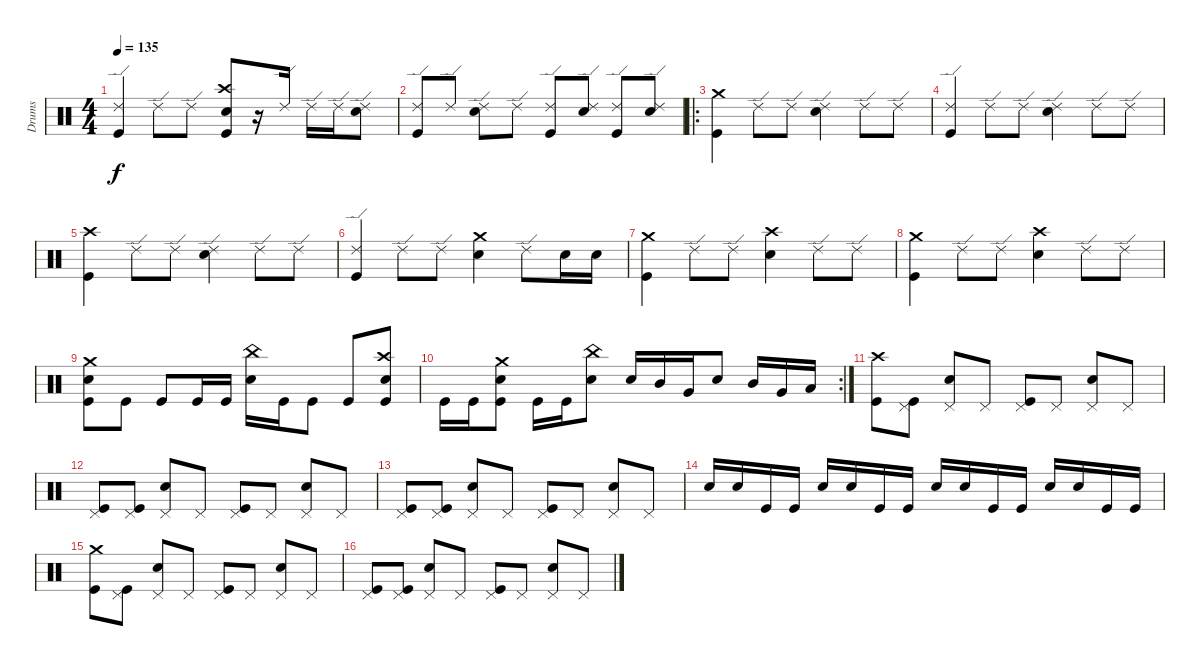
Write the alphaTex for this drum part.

\track ("Drums" "Drums") {instrument percussion}
\staff {score}
\articulation defaults
\ts (4 4)
\tempo 135
\clef neutral
\ks c
("Ride (edge) 2" "Kick (hit)").4{dy f} "Ride (edge) 2".8 "Ride (edge) 2".8 ("Crash high (hit)" "Snare (hit) 2" "Kick (hit)").8 r.16 "Ride (edge) 2".16 "Ride (edge) 2".16 "Ride (edge) 2".16 ("Ride (edge) 2" "Snare (hit) 2").8 |
("Ride (edge) 2" "Kick (hit)").8 "Ride (edge) 2".8 ("Ride (edge) 2" "Snare (hit) 2").8 "Ride (edge) 2".8 ("Ride (edge) 2" "Kick (hit)").8 ("Ride (edge) 2" "Snare (hit) 2").8 ("Ride (edge) 2" "Kick (hit)").8 ("Ride (edge) 2" "Snare (hit) 2").8 |
\ro
("Crash medium (hit)" "Kick (hit)").4 "Ride (edge) 2".8 "Ride (edge) 2".8 ("Ride (edge) 2" "Snare (hit) 2").4 "Ride (edge) 2".8 "Ride (edge) 2".8 |
("Ride (edge) 2" "Kick (hit)").4 "Ride (edge) 2".8 "Ride (edge) 2".8 ("Ride (edge) 2" "Snare (hit) 2").4 "Ride (edge) 2".8 "Ride (edge) 2".8 |
("Crash high (hit)" "Kick (hit)").4 "Ride (edge) 2".8 "Ride (edge) 2".8 ("Ride (edge) 2" "Snare (hit) 2").4 "Ride (edge) 2".8 "Ride (edge) 2".8 |
("Ride (edge) 2" "Kick (hit)").4 "Ride (edge) 2".8 "Ride (edge) 2".8 ("Crash medium (hit)" "Snare (hit) 2").4 "Ride (edge) 2".8 "Snare (hit) 2".16 "Snare (hit) 2".16 |
("Crash medium (hit)" "Kick (hit)").4 "Ride (edge) 2".8 "Ride (edge) 2".8 ("Crash high (hit)" "Snare (hit) 2").4 "Ride (edge) 2".8 "Ride (edge) 2".8 |
("Crash medium (hit)" "Kick (hit)").4 "Ride (edge) 2".8 "Ride (edge) 2".8 ("Crash high (hit)" "Snare (hit) 2").4 "Ride (edge) 2".8 "Ride (edge) 2".8 |
("Crash medium (hit)" "Snare (hit) 2" "Kick (hit)").8 "Kick (hit)".8 "Kick (hit)".8 "Kick (hit)".16 "Kick (hit)".16 ("China (hit)" "Snare (hit) 2").16 "Kick (hit)".16 "Kick (hit)".8 "Kick (hit)".8 ("Crash high (hit)" "Snare (hit) 2" "Kick (hit)").8 |
\rc 2 "Kick (hit)".16 "Kick (hit)".16
("Crash medium (hit)" "Snare (hit) 2" "Kick (hit)").8 "Kick (hit)".16 "Kick (hit)".16 ("China (hit)" "Snare (hit) 2").8 "Snare (hit) 2".16 "Mid Tom (hit)".16 "Very Low Tom (hit)".16 "Snare (hit) 2".8 "Mid Tom (hit)".16 "Very Low Tom (hit)".16 "Low Floor Tom (hit)".16 |
("Crash high (hit)" "Kick (hit)").8 ("Pedal Hi-Hat (hit)" "Kick (hit)").8 ("Pedal Hi-Hat (hit)" "Snare (hit) 2").8 "Pedal Hi-Hat (hit)".8 ("Pedal Hi-Hat (hit)" "Kick (hit)").8 "Pedal Hi-Hat (hit)".8 ("Pedal Hi-Hat (hit)" "Snare (hit) 2").8 "Pedal Hi-Hat (hit)".8 |
("Pedal Hi-Hat (hit)" "Kick (hit)").8 ("Pedal Hi-Hat (hit)" "Kick (hit)").8 ("Pedal Hi-Hat (hit)" "Snare (hit) 2").8 "Pedal Hi-Hat (hit)".8 ("Pedal Hi-Hat (hit)" "Kick (hit)").8 "Pedal Hi-Hat (hit)".8 ("Pedal Hi-Hat (hit)" "Snare (hit) 2").8 "Pedal Hi-Hat (hit)".8 |
("Pedal Hi-Hat (hit)" "Kick (hit)").8 ("Pedal Hi-Hat (hit)" "Kick (hit)").8 ("Pedal Hi-Hat (hit)" "Snare (hit) 2").8 "Pedal Hi-Hat (hit)".8 ("Pedal Hi-Hat (hit)" "Kick (hit)").8 "Pedal Hi-Hat (hit)".8 ("Pedal Hi-Hat (hit)" "Snare (hit) 2").8 "Pedal Hi-Hat (hit)".8 |
"Snare (hit) 2".16 "Snare (hit) 2".16 "Kick (hit)".16 "Kick (hit)".16 "Snare (hit) 2".16 "Snare (hit) 2".16 "Kick (hit)".16 "Kick (hit)".16 "Snare (hit) 2".16 "Snare (hit) 2".16 "Kick (hit)".16 "Kick (hit)".16 "Snare (hit) 2".16 "Snare (hit) 2".16 "Kick (hit)".16 "Kick (hit)".16 |
("Crash medium (hit)" "Kick (hit)").8 ("Pedal Hi-Hat (hit)" "Kick (hit)").8 ("Pedal Hi-Hat (hit)" "Snare (hit) 2").8 "Pedal Hi-Hat (hit)".8 ("Pedal Hi-Hat (hit)" "Kick (hit)").8 "Pedal Hi-Hat (hit)".8 ("Pedal Hi-Hat (hit)" "Snare (hit) 2").8 "Pedal Hi-Hat (hit)".8 |
("Pedal Hi-Hat (hit)" "Kick (hit)").8 ("Pedal Hi-Hat (hit)" "Kick (hit)").8 ("Pedal Hi-Hat (hit)" "Snare (hit) 2").8 "Pedal Hi-Hat (hit)".8 ("Pedal Hi-Hat (hit)" "Kick (hit)").8 "Pedal Hi-Hat (hit)".8 ("Pedal Hi-Hat (hit)" "Snare (hit) 2").8 "Pedal Hi-Hat (hit)".8
